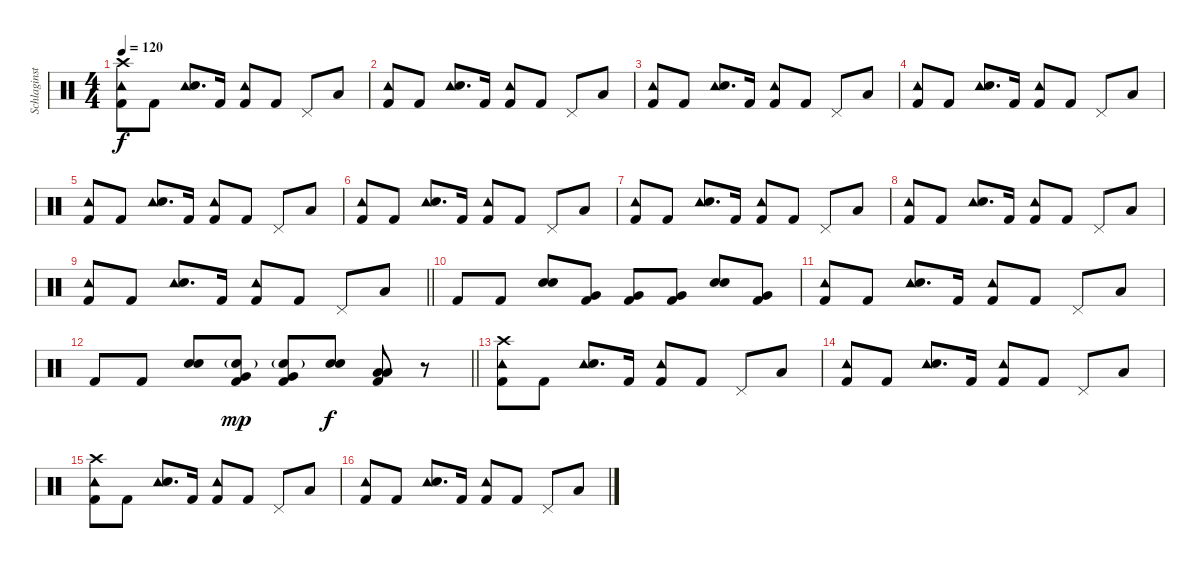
\track ("Schlaginstrumente - Auswahl" "Schlaginst") {instrument percussion}
\staff {score}
\articulation defaults
\ts (4 4)
\tempo 120
\clef neutral
\ks c
("Crash high (hit)" "Tambourine (hit)" "Kick (hit) 2").8{dy f} "Kick (hit) 2".8 ("Tambourine (hit)" "Snare (hit) 2").8{d} "Kick (hit) 2".16 ("Tambourine (hit)" "Kick (hit) 2").8 "Kick (hit) 2".8 "Pedal Hi-Hat (hit)".8 "Low Tom (hit)".8 |
("Tambourine (hit)" "Kick (hit) 2").8 "Kick (hit) 2".8 ("Tambourine (hit)" "Snare (hit) 2").8{d} "Kick (hit) 2".16 ("Tambourine (hit)" "Kick (hit) 2").8 "Kick (hit) 2".8 "Pedal Hi-Hat (hit)".8 "Low Tom (hit)".8 |
("Tambourine (hit)" "Kick (hit) 2").8 "Kick (hit) 2".8 ("Tambourine (hit)" "Snare (hit) 2").8{d} "Kick (hit) 2".16 ("Tambourine (hit)" "Kick (hit) 2").8 "Kick (hit) 2".8 "Pedal Hi-Hat (hit)".8 "Low Tom (hit)".8 |
("Tambourine (hit)" "Kick (hit) 2").8 "Kick (hit) 2".8 ("Tambourine (hit)" "Snare (hit) 2").8{d} "Kick (hit) 2".16 ("Tambourine (hit)" "Kick (hit) 2").8 "Kick (hit) 2".8 "Pedal Hi-Hat (hit)".8 "Low Tom (hit)".8 |
("Tambourine (hit)" "Kick (hit) 2").8 "Kick (hit) 2".8 ("Tambourine (hit)" "Snare (hit) 2").8{d} "Kick (hit) 2".16 ("Tambourine (hit)" "Kick (hit) 2").8 "Kick (hit) 2".8 "Pedal Hi-Hat (hit)".8 "Low Tom (hit)".8 |
("Tambourine (hit)" "Kick (hit) 2").8 "Kick (hit) 2".8 ("Tambourine (hit)" "Snare (hit) 2").8{d} "Kick (hit) 2".16 ("Tambourine (hit)" "Kick (hit) 2").8 "Kick (hit) 2".8 "Pedal Hi-Hat (hit)".8 "Low Tom (hit)".8 |
("Tambourine (hit)" "Kick (hit) 2").8 "Kick (hit) 2".8 ("Tambourine (hit)" "Snare (hit) 2").8{d} "Kick (hit) 2".16 ("Tambourine (hit)" "Kick (hit) 2").8 "Kick (hit) 2".8 "Pedal Hi-Hat (hit)".8 "Low Tom (hit)".8 |
("Tambourine (hit)" "Kick (hit) 2").8 "Kick (hit) 2".8 ("Tambourine (hit)" "Snare (hit) 2").8{d} "Kick (hit) 2".16 ("Tambourine (hit)" "Kick (hit) 2").8 "Kick (hit) 2".8 "Pedal Hi-Hat (hit)".8 "Low Tom (hit)".8 |
\barLineRight lightlight
("Tambourine (hit)" "Kick (hit) 2").8 "Kick (hit) 2".8 ("Tambourine (hit)" "Snare (hit) 2").8{d} "Kick (hit) 2".16 ("Tambourine (hit)" "Kick (hit) 2").8 "Kick (hit) 2".8 "Pedal Hi-Hat (hit)".8 "Low Tom (hit)".8 |
"Kick (hit) 2".8 "Kick (hit) 2".8 ("Snare (hit) 2" "Snare (hit) 2").8{bd 120} ("Very Low Tom (hit)" "Kick (hit) 2").8 ("Very Low Tom (hit)" "Kick (hit) 2").8 ("Very Low Tom (hit)" "Kick (hit) 2").8 ("Snare (hit) 2" "Snare (hit) 2").8{bd 120} ("Very Low Tom (hit)" "Kick (hit) 2").8 |
("Tambourine (hit)" "Kick (hit) 2").8 "Kick (hit) 2".8 ("Tambourine (hit)" "Snare (hit) 2").8{d} "Kick (hit) 2".16 ("Tambourine (hit)" "Kick (hit) 2").8 "Kick (hit) 2".8 "Pedal Hi-Hat (hit)".8 "Low Tom (hit)".8 |
\barLineRight lightlight "Kick (hit) 2".8 "Kick (hit) 2".8
("Snare (hit) 2" "Snare (hit) 2").8{bd 120} ("Snare (hit) 2"{g} "Very Low Tom (hit)" "Kick (hit) 2").8{dy mp} ("Snare (hit) 2"{g} "Very Low Tom (hit)" "Kick (hit) 2").8 ("Snare (hit) 2" "Snare (hit) 2").8{bd 120 dy f} ("Low Floor Tom (hit)" "Low Tom (hit)" "Kick (hit) 2").8 r.8 |
("Crash high (hit)" "Tambourine (hit)" "Kick (hit) 2").8 "Kick (hit) 2".8 ("Tambourine (hit)" "Snare (hit) 2").8{d} "Kick (hit) 2".16 ("Tambourine (hit)" "Kick (hit) 2").8 "Kick (hit) 2".8 "Pedal Hi-Hat (hit)".8 "Low Tom (hit)".8 |
("Tambourine (hit)" "Kick (hit) 2").8 "Kick (hit) 2".8 ("Tambourine (hit)" "Snare (hit) 2").8{d} "Kick (hit) 2".16 ("Tambourine (hit)" "Kick (hit) 2").8 "Kick (hit) 2".8 "Pedal Hi-Hat (hit)".8 "Low Tom (hit)".8 |
("Crash high (hit)" "Tambourine (hit)" "Kick (hit) 2").8 "Kick (hit) 2".8 ("Tambourine (hit)" "Snare (hit) 2").8{d} "Kick (hit) 2".16 ("Tambourine (hit)" "Kick (hit) 2").8 "Kick (hit) 2".8 "Pedal Hi-Hat (hit)".8 "Low Tom (hit)".8 |
("Tambourine (hit)" "Kick (hit) 2").8 "Kick (hit) 2".8 ("Tambourine (hit)" "Snare (hit) 2").8{d} "Kick (hit) 2".16 ("Tambourine (hit)" "Kick (hit) 2").8 "Kick (hit) 2".8 "Pedal Hi-Hat (hit)".8 "Low Tom (hit)".8
